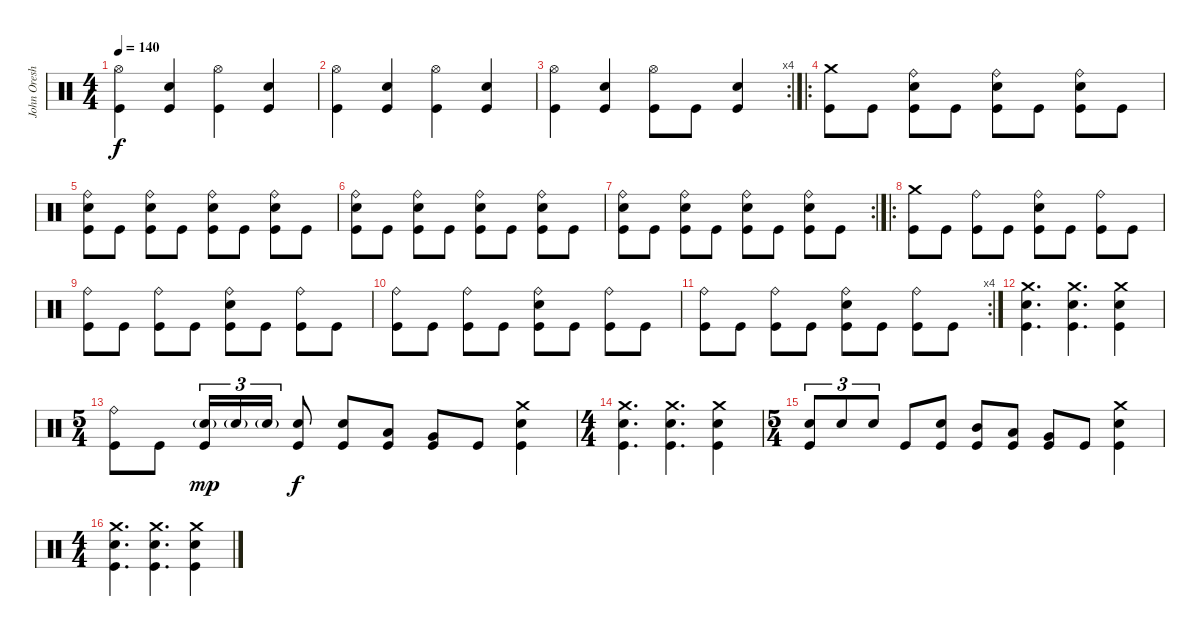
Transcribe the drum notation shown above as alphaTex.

\track ("John Oreshnick (drums)" "John Oresh") {instrument percussion}
\staff {score}
\articulation defaults
\ts (4 4)
\tempo 140
\clef neutral
\ks c
("Hi-Hat (open)" "Kick (hit)").4{dy f} ("Snare (hit) 2" "Kick (hit)").4 ("Hi-Hat (open)" "Kick (hit)").4 ("Snare (hit) 2" "Kick (hit)").4 |
("Hi-Hat (open)" "Kick (hit)").4 ("Snare (hit) 2" "Kick (hit)").4 ("Hi-Hat (open)" "Kick (hit)").4 ("Snare (hit) 2" "Kick (hit)").4 |
\rc 4
("Hi-Hat (open)" "Kick (hit)").4 ("Snare (hit) 2" "Kick (hit)").4 ("Hi-Hat (open)" "Kick (hit)").8 "Kick (hit)".8 ("Snare (hit) 2" "Kick (hit)").4 |
\ro
("Crash medium (hit)" "Kick (hit)").8 "Kick (hit)".8 ("Ride (bell)" "Snare (hit) 2" "Kick (hit)").8 "Kick (hit)".8 ("Ride (bell)" "Snare (hit) 2" "Kick (hit)").8 "Kick (hit)".8 ("Ride (bell)" "Snare (hit) 2" "Kick (hit)").8 "Kick (hit)".8 |
("Ride (bell)" "Snare (hit) 2" "Kick (hit)").8 "Kick (hit)".8 ("Ride (bell)" "Snare (hit) 2" "Kick (hit)").8 "Kick (hit)".8 ("Ride (bell)" "Snare (hit) 2" "Kick (hit)").8 "Kick (hit)".8 ("Ride (bell)" "Snare (hit) 2" "Kick (hit)").8 "Kick (hit)".8 |
("Ride (bell)" "Snare (hit) 2" "Kick (hit)").8 "Kick (hit)".8 ("Ride (bell)" "Snare (hit) 2" "Kick (hit)").8 "Kick (hit)".8 ("Ride (bell)" "Snare (hit) 2" "Kick (hit)").8 "Kick (hit)".8 ("Ride (bell)" "Snare (hit) 2" "Kick (hit)").8 "Kick (hit)".8 |
\rc 2
("Ride (bell)" "Snare (hit) 2" "Kick (hit)").8 "Kick (hit)".8 ("Ride (bell)" "Snare (hit) 2" "Kick (hit)").8 "Kick (hit)".8 ("Ride (bell)" "Snare (hit) 2" "Kick (hit)").8 "Kick (hit)".8 ("Ride (bell)" "Snare (hit) 2" "Kick (hit)").8 "Kick (hit)".8 |
\ro
("Crash medium (hit)" "Kick (hit)").8 "Kick (hit)".8 ("Ride (bell)" "Kick (hit)").8 "Kick (hit)".8 ("Ride (bell)" "Snare (hit) 2" "Kick (hit)").8 "Kick (hit)".8 ("Ride (bell)" "Kick (hit)").8 "Kick (hit)".8 |
("Ride (bell)" "Kick (hit)").8 "Kick (hit)".8 ("Ride (bell)" "Kick (hit)").8 "Kick (hit)".8 ("Ride (bell)" "Snare (hit) 2" "Kick (hit)").8 "Kick (hit)".8 ("Ride (bell)" "Kick (hit)").8 "Kick (hit)".8 |
("Ride (bell)" "Kick (hit)").8 "Kick (hit)".8 ("Ride (bell)" "Kick (hit)").8 "Kick (hit)".8 ("Ride (bell)" "Snare (hit) 2" "Kick (hit)").8 "Kick (hit)".8 ("Ride (bell)" "Kick (hit)").8 "Kick (hit)".8 |
\rc 4
("Ride (bell)" "Kick (hit)").8 "Kick (hit)".8 ("Ride (bell)" "Kick (hit)").8 "Kick (hit)".8 ("Ride (bell)" "Snare (hit) 2" "Kick (hit)").8 "Kick (hit)".8 ("Ride (bell)" "Kick (hit)").8 "Kick (hit)".8 |
("Crash medium (hit)" "Snare (hit) 2" "Kick (hit)").4{d} ("Crash medium (hit)" "Snare (hit) 2" "Kick (hit)").4{d} ("Crash medium (hit)" "Snare (hit) 2" "Kick (hit)").4 |
\ts (5 4)
("Ride (bell)" "Kick (hit)").8 "Kick (hit)".8 ("Snare (hit) 2"{g} "Kick (hit)").16{tu (3 2) dy mp} "Snare (hit) 2"{g}.16{tu (3 2)} "Snare (hit) 2"{g}.16{tu (3 2)} ("Snare (hit) 2" "Kick (hit)").8{dy f} ("Snare (hit) 2" "Kick (hit)").8 ("Low Tom (hit)" "Kick (hit)").8 ("Very Low Tom (hit)" "Kick (hit)").8 "Kick (hit)".8 ("Crash medium (hit)" "Snare (hit) 2" "Kick (hit)").4 |
\ts (4 4)
("Crash medium (hit)" "Snare (hit) 2" "Kick (hit)").4{d} ("Crash medium (hit)" "Snare (hit) 2" "Kick (hit)").4{d} ("Crash medium (hit)" "Snare (hit) 2" "Kick (hit)").4 |
\ts (5 4)
("Snare (hit) 2" "Kick (hit)").8{tu (3 2)} "Snare (hit) 2".8{tu (3 2)} "Snare (hit) 2".8{tu (3 2)} "Kick (hit)".8 ("Snare (hit) 2" "Kick (hit)").8 ("Mid Tom (hit)" "Kick (hit)").8 ("Low Tom (hit)" "Kick (hit)").8 ("Very Low Tom (hit)" "Kick (hit)").8 "Kick (hit)".8 ("Crash medium (hit)" "Snare (hit) 2" "Kick (hit)").4 |
\ts (4 4)
("Crash medium (hit)" "Snare (hit) 2" "Kick (hit)").4{d} ("Crash medium (hit)" "Snare (hit) 2" "Kick (hit)").4{d} ("Crash medium (hit)" "Snare (hit) 2" "Kick (hit)").4
